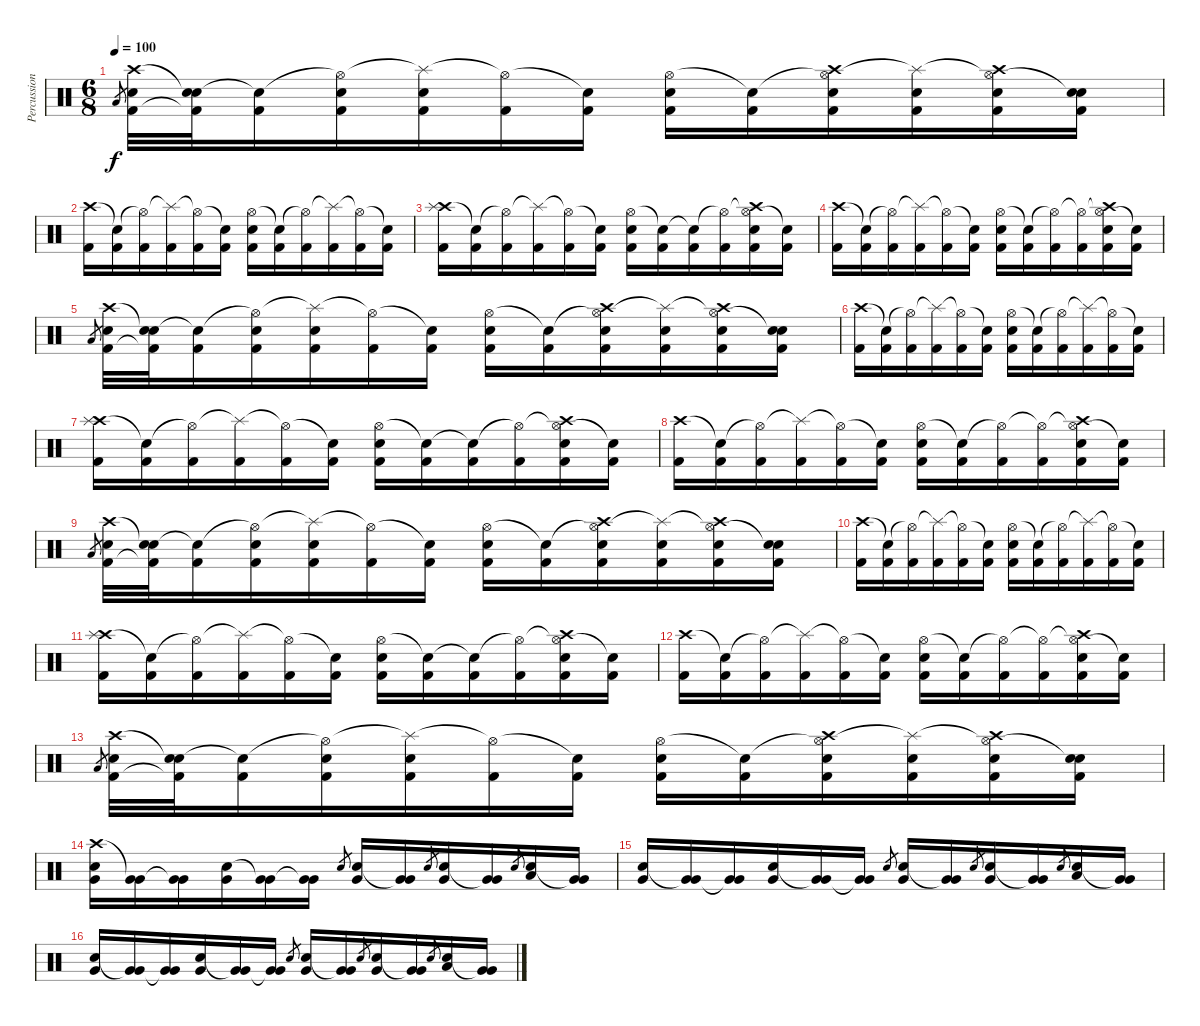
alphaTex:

\track ("Percussion" "Percussion") {instrument percussion}
\staff {score}
\articulation defaults
\ts (6 8)
\tempo 100
\clef neutral
\ks c "Low Tom (hit)".8{gr dy f}
("Crash high (hit)" "Electric Snare (hit)" "Kick (hit) 2").32 ("Snare (hit)"{t} "Electric Snare (hit)" "Kick (hit) 2"{t}).32 ("Snare (hit)"{t} "Kick (hit) 2").16 ("Hi-Hat (open)"{t} "Electric Snare (hit)" "Kick (hit) 2").16 ("Splash (hit)"{t} "Electric Snare (hit)" "Kick (hit) 2").16 ("Hi-Hat (open)"{t} "Kick (hit) 2").16 ("Snare (hit)"{t} "Kick (hit) 2").16 ("Hi-Hat (open)" "Electric Snare (hit)" "Kick (hit) 2").16 ("Snare (hit)"{t} "Kick (hit) 2").16 ("Hi-Hat (open)"{t} "Crash high (hit)" "Electric Snare (hit)" "Kick (hit) 2").16 ("Splash (hit)"{t} "Electric Snare (hit)" "Kick (hit) 2").16 ("Hi-Hat (open)"{t} "Crash high (hit)" "Electric Snare (hit)" "Kick (hit) 2").16 ("Snare (hit)"{t} "Electric Snare (hit)" "Kick (hit) 2").16 |
("Crash high (hit)" "Kick (hit) 2").16 ("Snare (hit)"{t} "Kick (hit) 2").16 ("Hi-Hat (open)"{t} "Kick (hit) 2").16 ("Splash (hit)"{t} "Kick (hit) 2").16 ("Hi-Hat (open)"{t} "Kick (hit) 2").16 ("Snare (hit)"{t} "Kick (hit) 2").16 ("Hi-Hat (open)" "Electric Snare (hit)" "Kick (hit) 2").16 ("Snare (hit)"{t} "Kick (hit) 2").16 ("Hi-Hat (open)"{t} "Kick (hit) 2").16 ("Splash (hit)"{t} "Kick (hit) 2").16 ("Hi-Hat (open)"{t} "Kick (hit) 2").16 ("Snare (hit)"{t} "Kick (hit) 2").16 |
("Crash high (hit)" "Splash (hit)" "Kick (hit) 2").16 ("Snare (hit)"{t} "Kick (hit) 2").16 ("Hi-Hat (open)"{t} "Kick (hit) 2").16 ("Splash (hit)"{t} "Kick (hit) 2").16 ("Hi-Hat (open)"{t} "Kick (hit) 2").16 ("Snare (hit)"{t} "Kick (hit) 2").16 ("Hi-Hat (open)" "Electric Snare (hit)" "Kick (hit) 2").16 ("Snare (hit)"{t} "Kick (hit) 2").16 ("Snare (hit)"{t} "Kick (hit) 2").16 ("Hi-Hat (open)"{t} "Kick (hit) 2").16 ("Hi-Hat (open)"{t} "Crash high (hit)" "Electric Snare (hit)" "Kick (hit) 2").16 ("Snare (hit)"{t} "Kick (hit) 2").16 |
("Crash high (hit)" "Kick (hit) 2").16 ("Snare (hit)"{t} "Kick (hit) 2").16 ("Hi-Hat (open)"{t} "Kick (hit) 2").16 ("Splash (hit)"{t} "Kick (hit) 2").16 ("Hi-Hat (open)"{t} "Kick (hit) 2").16 ("Snare (hit)"{t} "Kick (hit) 2").16 ("Hi-Hat (open)" "Electric Snare (hit)" "Kick (hit) 2").16 ("Snare (hit)"{t} "Kick (hit) 2").16 ("Hi-Hat (open)"{t} "Kick (hit) 2").16 ("Hi-Hat (open)"{t} "Kick (hit) 2").16 ("Hi-Hat (open)"{t} "Crash high (hit)" "Electric Snare (hit)" "Kick (hit) 2").16 ("Snare (hit)"{t} "Kick (hit) 2").16 |
"Low Tom (hit)".8{gr} ("Crash high (hit)" "Electric Snare (hit)" "Kick (hit) 2").32 ("Snare (hit)"{t} "Electric Snare (hit)" "Kick (hit) 2"{t}).32 ("Snare (hit)"{t} "Kick (hit) 2").16 ("Hi-Hat (open)"{t} "Electric Snare (hit)" "Kick (hit) 2").16 ("Splash (hit)"{t} "Electric Snare (hit)" "Kick (hit) 2").16 ("Hi-Hat (open)"{t} "Kick (hit) 2").16 ("Snare (hit)"{t} "Kick (hit) 2").16 ("Hi-Hat (open)" "Electric Snare (hit)" "Kick (hit) 2").16 ("Snare (hit)"{t} "Kick (hit) 2").16 ("Hi-Hat (open)"{t} "Crash high (hit)" "Electric Snare (hit)" "Kick (hit) 2").16 ("Splash (hit)"{t} "Electric Snare (hit)" "Kick (hit) 2").16 ("Hi-Hat (open)"{t} "Crash high (hit)" "Electric Snare (hit)" "Kick (hit) 2").16 ("Snare (hit)"{t} "Electric Snare (hit)" "Kick (hit) 2").16 |
("Crash high (hit)" "Kick (hit) 2").16 ("Snare (hit)"{t} "Kick (hit) 2").16 ("Hi-Hat (open)"{t} "Kick (hit) 2").16 ("Splash (hit)"{t} "Kick (hit) 2").16 ("Hi-Hat (open)"{t} "Kick (hit) 2").16 ("Snare (hit)"{t} "Kick (hit) 2").16 ("Hi-Hat (open)" "Electric Snare (hit)" "Kick (hit) 2").16 ("Snare (hit)"{t} "Kick (hit) 2").16 ("Hi-Hat (open)"{t} "Kick (hit) 2").16 ("Splash (hit)"{t} "Kick (hit) 2").16 ("Hi-Hat (open)"{t} "Kick (hit) 2").16 ("Snare (hit)"{t} "Kick (hit) 2").16 |
("Crash high (hit)" "Splash (hit)" "Kick (hit) 2").16 ("Snare (hit)"{t} "Kick (hit) 2").16 ("Hi-Hat (open)"{t} "Kick (hit) 2").16 ("Splash (hit)"{t} "Kick (hit) 2").16 ("Hi-Hat (open)"{t} "Kick (hit) 2").16 ("Snare (hit)"{t} "Kick (hit) 2").16 ("Hi-Hat (open)" "Electric Snare (hit)" "Kick (hit) 2").16 ("Snare (hit)"{t} "Kick (hit) 2").16 ("Snare (hit)"{t} "Kick (hit) 2").16 ("Hi-Hat (open)"{t} "Kick (hit) 2").16 ("Hi-Hat (open)"{t} "Crash high (hit)" "Electric Snare (hit)" "Kick (hit) 2").16 ("Snare (hit)"{t} "Kick (hit) 2").16 |
("Crash high (hit)" "Kick (hit) 2").16 ("Snare (hit)"{t} "Kick (hit) 2").16 ("Hi-Hat (open)"{t} "Kick (hit) 2").16 ("Splash (hit)"{t} "Kick (hit) 2").16 ("Hi-Hat (open)"{t} "Kick (hit) 2").16 ("Snare (hit)"{t} "Kick (hit) 2").16 ("Hi-Hat (open)" "Electric Snare (hit)" "Kick (hit) 2").16 ("Snare (hit)"{t} "Kick (hit) 2").16 ("Hi-Hat (open)"{t} "Kick (hit) 2").16 ("Hi-Hat (open)"{t} "Kick (hit) 2").16 ("Hi-Hat (open)"{t} "Crash high (hit)" "Electric Snare (hit)" "Kick (hit) 2").16 ("Snare (hit)"{t} "Kick (hit) 2").16 |
"Low Tom (hit)".8{gr} ("Crash high (hit)" "Electric Snare (hit)" "Kick (hit) 2").32 ("Snare (hit)"{t} "Electric Snare (hit)" "Kick (hit) 2"{t}).32 ("Snare (hit)"{t} "Kick (hit) 2").16 ("Hi-Hat (open)"{t} "Electric Snare (hit)" "Kick (hit) 2").16 ("Splash (hit)"{t} "Electric Snare (hit)" "Kick (hit) 2").16 ("Hi-Hat (open)"{t} "Kick (hit) 2").16 ("Snare (hit)"{t} "Kick (hit) 2").16 ("Hi-Hat (open)" "Electric Snare (hit)" "Kick (hit) 2").16 ("Snare (hit)"{t} "Kick (hit) 2").16 ("Hi-Hat (open)"{t} "Crash high (hit)" "Electric Snare (hit)" "Kick (hit) 2").16 ("Splash (hit)"{t} "Electric Snare (hit)" "Kick (hit) 2").16 ("Hi-Hat (open)"{t} "Crash high (hit)" "Electric Snare (hit)" "Kick (hit) 2").16 ("Snare (hit)"{t} "Electric Snare (hit)" "Kick (hit) 2").16 |
("Crash high (hit)" "Kick (hit) 2").16 ("Snare (hit)"{t} "Kick (hit) 2").16 ("Hi-Hat (open)"{t} "Kick (hit) 2").16 ("Splash (hit)"{t} "Kick (hit) 2").16 ("Hi-Hat (open)"{t} "Kick (hit) 2").16 ("Snare (hit)"{t} "Kick (hit) 2").16 ("Hi-Hat (open)" "Electric Snare (hit)" "Kick (hit) 2").16 ("Snare (hit)"{t} "Kick (hit) 2").16 ("Hi-Hat (open)"{t} "Kick (hit) 2").16 ("Splash (hit)"{t} "Kick (hit) 2").16 ("Hi-Hat (open)"{t} "Kick (hit) 2").16 ("Snare (hit)"{t} "Kick (hit) 2").16 |
("Crash high (hit)" "Splash (hit)" "Kick (hit) 2").16 ("Snare (hit)"{t} "Kick (hit) 2").16 ("Hi-Hat (open)"{t} "Kick (hit) 2").16 ("Splash (hit)"{t} "Kick (hit) 2").16 ("Hi-Hat (open)"{t} "Kick (hit) 2").16 ("Snare (hit)"{t} "Kick (hit) 2").16 ("Hi-Hat (open)" "Electric Snare (hit)" "Kick (hit) 2").16 ("Snare (hit)"{t} "Kick (hit) 2").16 ("Snare (hit)"{t} "Kick (hit) 2").16 ("Hi-Hat (open)"{t} "Kick (hit) 2").16 ("Hi-Hat (open)"{t} "Crash high (hit)" "Electric Snare (hit)" "Kick (hit) 2").16 ("Snare (hit)"{t} "Kick (hit) 2").16 |
("Crash high (hit)" "Kick (hit) 2").16 ("Snare (hit)"{t} "Kick (hit) 2").16 ("Hi-Hat (open)"{t} "Kick (hit) 2").16 ("Splash (hit)"{t} "Kick (hit) 2").16 ("Hi-Hat (open)"{t} "Kick (hit) 2").16 ("Snare (hit)"{t} "Kick (hit) 2").16 ("Hi-Hat (open)" "Electric Snare (hit)" "Kick (hit) 2").16 ("Snare (hit)"{t} "Kick (hit) 2").16 ("Hi-Hat (open)"{t} "Kick (hit) 2").16 ("Hi-Hat (open)"{t} "Kick (hit) 2").16 ("Hi-Hat (open)"{t} "Crash high (hit)" "Electric Snare (hit)" "Kick (hit) 2").16 ("Snare (hit)"{t} "Kick (hit) 2").16 |
"Low Tom (hit)".8{gr} ("Crash high (hit)" "Electric Snare (hit)" "Kick (hit) 2").32 ("Snare (hit)"{t} "Electric Snare (hit)" "Kick (hit) 2"{t}).32 ("Snare (hit)"{t} "Kick (hit) 2").16 ("Hi-Hat (open)"{t} "Electric Snare (hit)" "Kick (hit) 2").16 ("Splash (hit)"{t} "Electric Snare (hit)" "Kick (hit) 2").16 ("Hi-Hat (open)"{t} "Kick (hit) 2").16 ("Snare (hit)"{t} "Kick (hit) 2").16 ("Hi-Hat (open)" "Electric Snare (hit)" "Kick (hit) 2").16 ("Snare (hit)"{t} "Kick (hit) 2").16 ("Hi-Hat (open)"{t} "Crash high (hit)" "Electric Snare (hit)" "Kick (hit) 2").16 ("Splash (hit)"{t} "Electric Snare (hit)" "Kick (hit) 2").16 ("Hi-Hat (open)"{t} "Crash high (hit)" "Electric Snare (hit)" "Kick (hit) 2").16 ("Snare (hit)"{t} "Electric Snare (hit)" "Kick (hit) 2").16 |
("Crash high (hit)" "Electric Snare (hit)" "Very Low Tom (hit)").16 ("Very Low Tom (hit)"{t} "Very Low Tom (hit)").16 ("Very Low Tom (hit)"{t} "Very Low Tom (hit)").16 ("Electric Snare (hit)" "Very Low Tom (hit)").16 ("Very Low Tom (hit)"{t} "Very Low Tom (hit)").16 ("Very Low Tom (hit)"{t} "Very Low Tom (hit)").16 "Electric Snare (hit)".8{gr} ("Electric Snare (hit)" "Very Low Tom (hit)").16 ("Very Low Tom (hit)"{t} "Very Low Tom (hit)").16 "Electric Snare (hit)".8{gr} ("Electric Snare (hit)" "Very Low Tom (hit)").16 ("Very Low Tom (hit)"{t} "Very Low Tom (hit)").16 "Electric Snare (hit)".8{gr} ("Electric Snare (hit)" "Low Floor Tom (hit)").16 ("Very Low Tom (hit)"{t} "Very Low Tom (hit)").16 |
("Electric Snare (hit)" "Very Low Tom (hit)").16 ("Very Low Tom (hit)"{t} "Very Low Tom (hit)").16 ("Very Low Tom (hit)"{t} "Very Low Tom (hit)").16 ("Electric Snare (hit)" "Very Low Tom (hit)").16 ("Very Low Tom (hit)"{t} "Very Low Tom (hit)").16 ("Very Low Tom (hit)"{t} "Very Low Tom (hit)").16 "Electric Snare (hit)".8{gr} ("Electric Snare (hit)" "Very Low Tom (hit)").16 ("Very Low Tom (hit)"{t} "Very Low Tom (hit)").16 "Electric Snare (hit)".8{gr} ("Electric Snare (hit)" "Very Low Tom (hit)").16 ("Very Low Tom (hit)"{t} "Very Low Tom (hit)").16 "Electric Snare (hit)".8{gr} ("Electric Snare (hit)" "Low Floor Tom (hit)").16 ("Very Low Tom (hit)"{t} "Very Low Tom (hit)").16 |
("Electric Snare (hit)" "Very Low Tom (hit)").16 ("Very Low Tom (hit)"{t} "Very Low Tom (hit)").16 ("Very Low Tom (hit)"{t} "Very Low Tom (hit)").16 ("Electric Snare (hit)" "Very Low Tom (hit)").16 ("Very Low Tom (hit)"{t} "Very Low Tom (hit)").16 ("Very Low Tom (hit)"{t} "Very Low Tom (hit)").16 "Electric Snare (hit)".8{gr} ("Electric Snare (hit)" "Very Low Tom (hit)").16 ("Very Low Tom (hit)"{t} "Very Low Tom (hit)").16 "Electric Snare (hit)".8{gr} ("Electric Snare (hit)" "Very Low Tom (hit)").16 ("Very Low Tom (hit)"{t} "Very Low Tom (hit)").16 "Electric Snare (hit)".8{gr} ("Electric Snare (hit)" "Low Floor Tom (hit)").16 ("Very Low Tom (hit)"{t} "Very Low Tom (hit)").16
